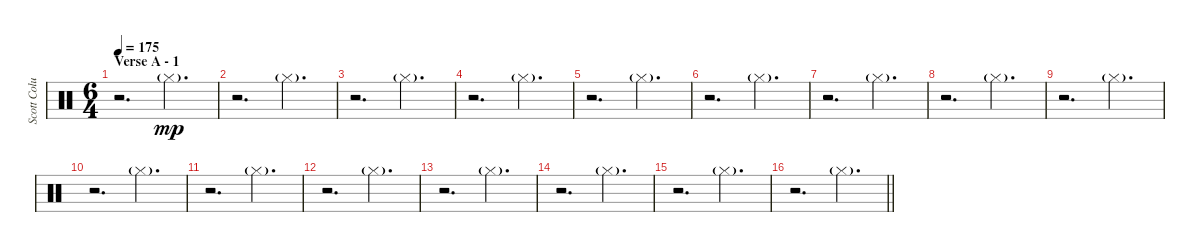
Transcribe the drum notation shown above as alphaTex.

\track ("Scott Columbus" "Scott Colu") {instrument percussion}
\staff {score}
\articulation defaults
\ts (6 4)
\section ("" "Verse A - 1")
\tempo 175
\clef neutral
\ks c
r.2{d dy mp} "Hi-Hat (closed)"{g}.2{d} |
r.2{d} "Hi-Hat (closed)"{g}.2{d} |
r.2{d} "Hi-Hat (closed)"{g}.2{d} |
r.2{d} "Hi-Hat (closed)"{g}.2{d} |
r.2{d} "Hi-Hat (closed)"{g}.2{d} |
r.2{d} "Hi-Hat (closed)"{g}.2{d} |
r.2{d} "Hi-Hat (closed)"{g}.2{d} |
r.2{d} "Hi-Hat (closed)"{g}.2{d} |
r.2{d} "Hi-Hat (closed)"{g}.2{d} |
r.2{d} "Hi-Hat (closed)"{g}.2{d} |
r.2{d} "Hi-Hat (closed)"{g}.2{d} |
r.2{d} "Hi-Hat (closed)"{g}.2{d} |
r.2{d} "Hi-Hat (closed)"{g}.2{d} |
r.2{d} "Hi-Hat (closed)"{g}.2{d} |
r.2{d} "Hi-Hat (closed)"{g}.2{d} |
\barLineRight lightlight
r.2{d} "Hi-Hat (closed)"{g}.2{d}
